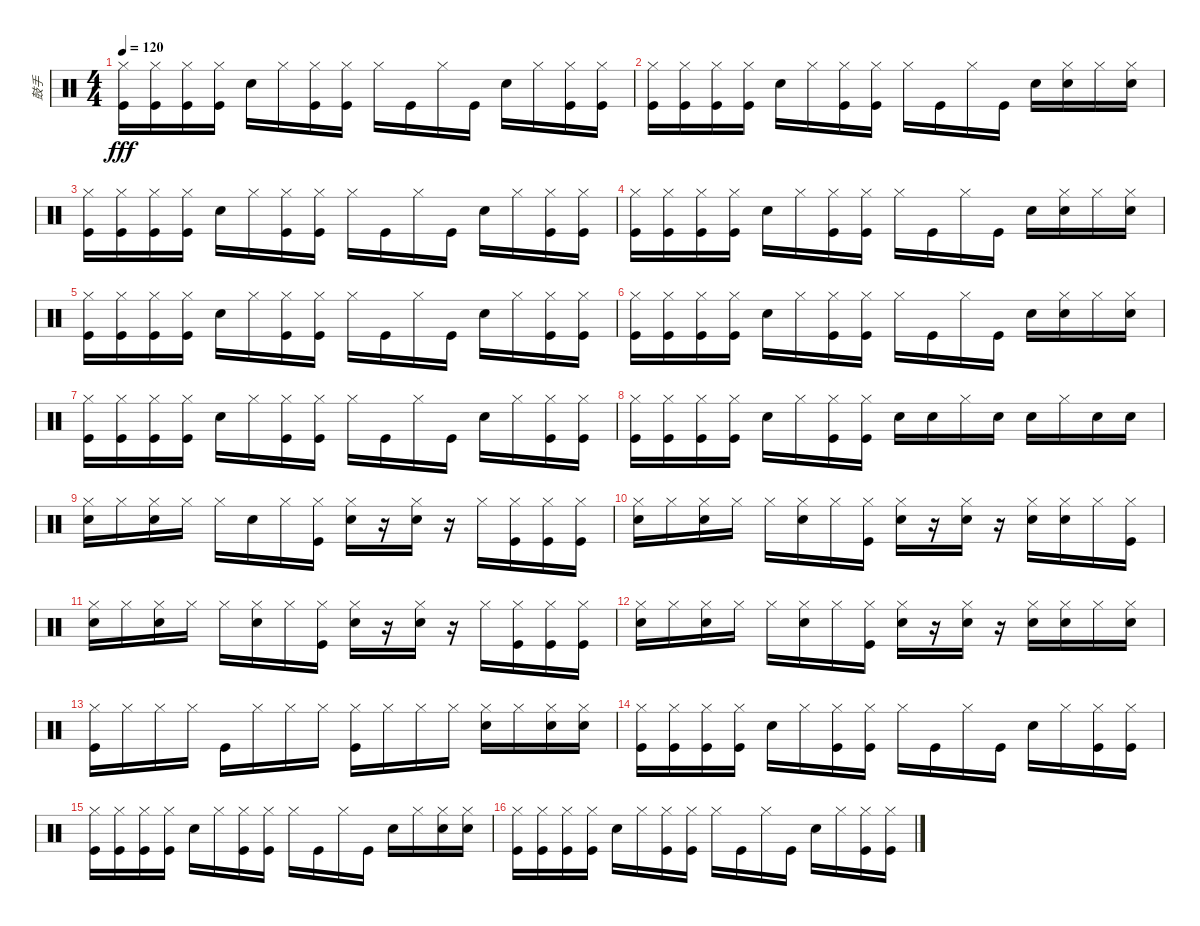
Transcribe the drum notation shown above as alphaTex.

\track ("鼓手" "鼓手") {instrument percussion}
\staff {score}
\articulation defaults
\ts (4 4)
\tempo 120
\clef neutral
\ks c
("Kick (hit)" "Hi-Hat (closed)").16{dy fff} ("Kick (hit)" "Hi-Hat (closed)").16 ("Kick (hit)" "Hi-Hat (closed)").16 ("Kick (hit)" "Hi-Hat (closed)").16 "Snare (hit) 2".16 "Hi-Hat (closed)".16 ("Kick (hit)" "Hi-Hat (closed)").16 ("Kick (hit)" "Hi-Hat (closed)").16 "Hi-Hat (closed)".16 "Kick (hit)".16 "Hi-Hat (closed)".16 "Kick (hit)".16 "Snare (hit) 2".16 "Hi-Hat (closed)".16 ("Kick (hit)" "Hi-Hat (closed)").16 ("Kick (hit)" "Hi-Hat (closed)").16 |
("Kick (hit)" "Hi-Hat (closed)").16 ("Kick (hit)" "Hi-Hat (closed)").16 ("Kick (hit)" "Hi-Hat (closed)").16 ("Kick (hit)" "Hi-Hat (closed)").16 "Snare (hit) 2".16 "Hi-Hat (closed)".16 ("Kick (hit)" "Hi-Hat (closed)").16 ("Kick (hit)" "Hi-Hat (closed)").16 "Hi-Hat (closed)".16 "Kick (hit)".16 "Hi-Hat (closed)".16 "Kick (hit)".16 "Snare (hit) 2".16 ("Snare (hit) 2" "Hi-Hat (closed)").16 "Hi-Hat (closed)".16 ("Snare (hit) 2" "Hi-Hat (closed)").16 |
("Kick (hit)" "Hi-Hat (closed)").16 ("Kick (hit)" "Hi-Hat (closed)").16 ("Kick (hit)" "Hi-Hat (closed)").16 ("Kick (hit)" "Hi-Hat (closed)").16 "Snare (hit) 2".16 "Hi-Hat (closed)".16 ("Kick (hit)" "Hi-Hat (closed)").16 ("Kick (hit)" "Hi-Hat (closed)").16 "Hi-Hat (closed)".16 "Kick (hit)".16 "Hi-Hat (closed)".16 "Kick (hit)".16 "Snare (hit) 2".16 "Hi-Hat (closed)".16 ("Kick (hit)" "Hi-Hat (closed)").16 ("Kick (hit)" "Hi-Hat (closed)").16 |
("Kick (hit)" "Hi-Hat (closed)").16 ("Kick (hit)" "Hi-Hat (closed)").16 ("Kick (hit)" "Hi-Hat (closed)").16 ("Kick (hit)" "Hi-Hat (closed)").16 "Snare (hit) 2".16 "Hi-Hat (closed)".16 ("Kick (hit)" "Hi-Hat (closed)").16 ("Kick (hit)" "Hi-Hat (closed)").16 "Hi-Hat (closed)".16 "Kick (hit)".16 "Hi-Hat (closed)".16 "Kick (hit)".16 "Snare (hit) 2".16 ("Snare (hit) 2" "Hi-Hat (closed)").16 "Hi-Hat (closed)".16 ("Snare (hit) 2" "Hi-Hat (closed)").16 |
("Kick (hit)" "Hi-Hat (closed)").16 ("Kick (hit)" "Hi-Hat (closed)").16 ("Kick (hit)" "Hi-Hat (closed)").16 ("Kick (hit)" "Hi-Hat (closed)").16 "Snare (hit) 2".16 "Hi-Hat (closed)".16 ("Kick (hit)" "Hi-Hat (closed)").16 ("Kick (hit)" "Hi-Hat (closed)").16 "Hi-Hat (closed)".16 "Kick (hit)".16 "Hi-Hat (closed)".16 "Kick (hit)".16 "Snare (hit) 2".16 "Hi-Hat (closed)".16 ("Kick (hit)" "Hi-Hat (closed)").16 ("Kick (hit)" "Hi-Hat (closed)").16 |
("Kick (hit)" "Hi-Hat (closed)").16 ("Kick (hit)" "Hi-Hat (closed)").16 ("Kick (hit)" "Hi-Hat (closed)").16 ("Kick (hit)" "Hi-Hat (closed)").16 "Snare (hit) 2".16 "Hi-Hat (closed)".16 ("Kick (hit)" "Hi-Hat (closed)").16 ("Kick (hit)" "Hi-Hat (closed)").16 "Hi-Hat (closed)".16 "Kick (hit)".16 "Hi-Hat (closed)".16 "Kick (hit)".16 "Snare (hit) 2".16 ("Snare (hit) 2" "Hi-Hat (closed)").16 "Hi-Hat (closed)".16 ("Snare (hit) 2" "Hi-Hat (closed)").16 |
("Kick (hit)" "Hi-Hat (closed)").16 ("Kick (hit)" "Hi-Hat (closed)").16 ("Kick (hit)" "Hi-Hat (closed)").16 ("Kick (hit)" "Hi-Hat (closed)").16 "Snare (hit) 2".16 "Hi-Hat (closed)".16 ("Kick (hit)" "Hi-Hat (closed)").16 ("Kick (hit)" "Hi-Hat (closed)").16 "Hi-Hat (closed)".16 "Kick (hit)".16 "Hi-Hat (closed)".16 "Kick (hit)".16 "Snare (hit) 2".16 "Hi-Hat (closed)".16 ("Kick (hit)" "Hi-Hat (closed)").16 ("Kick (hit)" "Hi-Hat (closed)").16 |
("Kick (hit)" "Hi-Hat (closed)").16 ("Kick (hit)" "Hi-Hat (closed)").16 ("Kick (hit)" "Hi-Hat (closed)").16 ("Kick (hit)" "Hi-Hat (closed)").16 "Snare (hit) 2".16 "Hi-Hat (closed)".16 ("Kick (hit)" "Hi-Hat (closed)").16 ("Kick (hit)" "Hi-Hat (closed)").16 "Snare (hit) 2".16 "Snare (hit) 2".16 "Hi-Hat (closed)".16 "Snare (hit) 2".16 "Snare (hit) 2".16 "Hi-Hat (closed)".16 "Snare (hit) 2".16 "Snare (hit) 2".16 |
("Snare (hit) 2" "Hi-Hat (closed)").16 "Hi-Hat (closed)".16 ("Snare (hit) 2" "Hi-Hat (closed)").16 "Hi-Hat (closed)".16 "Hi-Hat (closed)".16 "Snare (hit) 2".16 "Hi-Hat (closed)".16 ("Kick (hit)" "Hi-Hat (closed)").16 ("Snare (hit) 2" "Hi-Hat (closed)").16 r.16 ("Snare (hit) 2" "Hi-Hat (closed)").16 r.16 "Hi-Hat (closed)".16 ("Kick (hit)" "Hi-Hat (closed)").16 ("Kick (hit)" "Hi-Hat (closed)").16 ("Kick (hit)" "Hi-Hat (closed)").16 |
("Snare (hit) 2" "Hi-Hat (closed)").16 "Hi-Hat (closed)".16 ("Snare (hit) 2" "Hi-Hat (closed)").16 "Hi-Hat (closed)".16 "Hi-Hat (closed)".16 ("Snare (hit) 2" "Hi-Hat (closed)").16 "Hi-Hat (closed)".16 ("Kick (hit)" "Hi-Hat (closed)").16 ("Snare (hit) 2" "Hi-Hat (closed)").16 r.16 ("Snare (hit) 2" "Hi-Hat (closed)").16 r.16 ("Snare (hit) 2" "Hi-Hat (closed)").16 ("Snare (hit) 2" "Hi-Hat (closed)").16 "Hi-Hat (closed)".16 ("Kick (hit)" "Hi-Hat (closed)").16 |
("Snare (hit) 2" "Hi-Hat (closed)").16 "Hi-Hat (closed)".16 ("Snare (hit) 2" "Hi-Hat (closed)").16 "Hi-Hat (closed)".16 "Hi-Hat (closed)".16 ("Snare (hit) 2" "Hi-Hat (closed)").16 "Hi-Hat (closed)".16 ("Kick (hit)" "Hi-Hat (closed)").16 ("Snare (hit) 2" "Hi-Hat (closed)").16 r.16 ("Snare (hit) 2" "Hi-Hat (closed)").16 r.16 "Hi-Hat (closed)".16 ("Kick (hit)" "Hi-Hat (closed)").16 ("Kick (hit)" "Hi-Hat (closed)").16 ("Kick (hit)" "Hi-Hat (closed)").16 |
("Snare (hit) 2" "Hi-Hat (closed)").16 "Hi-Hat (closed)".16 ("Snare (hit) 2" "Hi-Hat (closed)").16 "Hi-Hat (closed)".16 "Hi-Hat (closed)".16 ("Snare (hit) 2" "Hi-Hat (closed)").16 "Hi-Hat (closed)".16 ("Kick (hit)" "Hi-Hat (closed)").16 ("Snare (hit) 2" "Hi-Hat (closed)").16 r.16 ("Snare (hit) 2" "Hi-Hat (closed)").16 r.16 ("Snare (hit) 2" "Hi-Hat (closed)").16 ("Snare (hit) 2" "Hi-Hat (closed)").16 "Hi-Hat (closed)".16 ("Snare (hit) 2" "Hi-Hat (closed)").16 |
("Kick (hit)" "Hi-Hat (closed)").16 "Hi-Hat (closed)".16 "Hi-Hat (closed)".16 "Hi-Hat (closed)".16 "Kick (hit)".16 "Hi-Hat (closed)".16 "Hi-Hat (closed)".16 "Hi-Hat (closed)".16 ("Kick (hit)" "Hi-Hat (closed)").16 "Hi-Hat (closed)".16 "Hi-Hat (closed)".16 "Hi-Hat (closed)".16 ("Snare (hit) 2" "Hi-Hat (closed)").16 "Hi-Hat (closed)".16 ("Snare (hit) 2" "Hi-Hat (closed)").16 ("Snare (hit) 2" "Hi-Hat (closed)").16 |
("Kick (hit)" "Hi-Hat (closed)").16 ("Kick (hit)" "Hi-Hat (closed)").16 ("Kick (hit)" "Hi-Hat (closed)").16 ("Kick (hit)" "Hi-Hat (closed)").16 "Snare (hit) 2".16 "Hi-Hat (closed)".16 ("Kick (hit)" "Hi-Hat (closed)").16 ("Kick (hit)" "Hi-Hat (closed)").16 "Hi-Hat (closed)".16 "Kick (hit)".16 "Hi-Hat (closed)".16 "Kick (hit)".16 "Snare (hit) 2".16 "Hi-Hat (closed)".16 ("Kick (hit)" "Hi-Hat (closed)").16 ("Kick (hit)" "Hi-Hat (closed)").16 |
("Kick (hit)" "Hi-Hat (closed)").16 ("Kick (hit)" "Hi-Hat (closed)").16 ("Kick (hit)" "Hi-Hat (closed)").16 ("Kick (hit)" "Hi-Hat (closed)").16 "Snare (hit) 2".16 "Hi-Hat (closed)".16 ("Kick (hit)" "Hi-Hat (closed)").16 ("Kick (hit)" "Hi-Hat (closed)").16 "Hi-Hat (closed)".16 "Kick (hit)".16 "Hi-Hat (closed)".16 "Kick (hit)".16 "Snare (hit) 2".16 "Hi-Hat (closed)".16 ("Snare (hit) 2" "Hi-Hat (closed)").16 ("Snare (hit) 2" "Hi-Hat (closed)").16 |
("Kick (hit)" "Hi-Hat (closed)").16 ("Kick (hit)" "Hi-Hat (closed)").16 ("Kick (hit)" "Hi-Hat (closed)").16 ("Kick (hit)" "Hi-Hat (closed)").16 "Snare (hit) 2".16 "Hi-Hat (closed)".16 ("Kick (hit)" "Hi-Hat (closed)").16 ("Kick (hit)" "Hi-Hat (closed)").16 "Hi-Hat (closed)".16 "Kick (hit)".16 "Hi-Hat (closed)".16 "Kick (hit)".16 "Snare (hit) 2".16 "Hi-Hat (closed)".16 ("Kick (hit)" "Hi-Hat (closed)").16 ("Kick (hit)" "Hi-Hat (closed)").16
